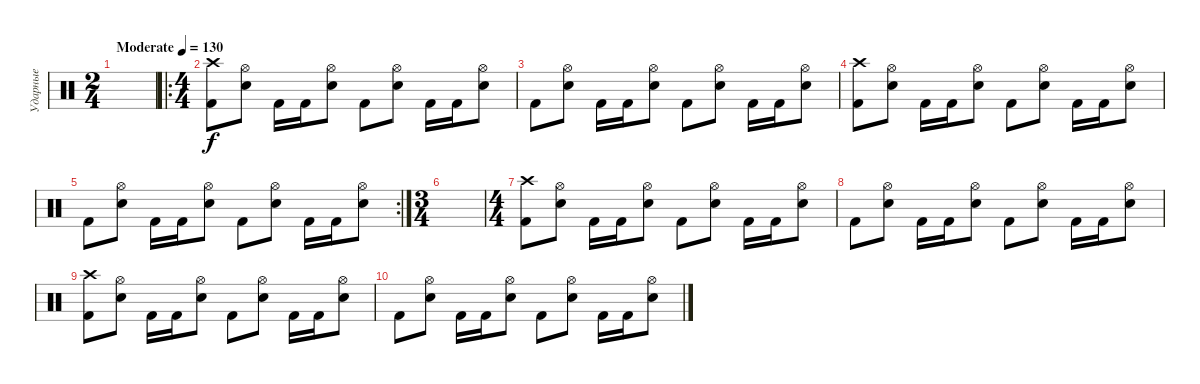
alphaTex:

\track ("Ударные" "Ударные") {instrument percussion}
\staff {score}
\articulation defaults
\ts (2 4)
\tempo (130 "Moderate")
\clef neutral
\ks c
|
\ro
\ts (4 4)
("Crash high (hit)" "Kick (hit) 2").8 ("Hi-Hat (open)" "Snare (hit) 2").8 "Kick (hit) 2".16 "Kick (hit) 2".16 ("Hi-Hat (open)" "Snare (hit) 2").8 "Kick (hit) 2".8 ("Hi-Hat (open)" "Snare (hit) 2").8 "Kick (hit) 2".16 "Kick (hit) 2".16 ("Hi-Hat (open)" "Snare (hit) 2").8 |
"Kick (hit) 2".8 ("Hi-Hat (open)" "Snare (hit) 2").8 "Kick (hit) 2".16 "Kick (hit) 2".16 ("Hi-Hat (open)" "Snare (hit) 2").8 "Kick (hit) 2".8 ("Hi-Hat (open)" "Snare (hit) 2").8 "Kick (hit) 2".16 "Kick (hit) 2".16 ("Hi-Hat (open)" "Snare (hit) 2").8 |
("Crash high (hit)" "Kick (hit) 2").8 ("Hi-Hat (open)" "Snare (hit) 2").8 "Kick (hit) 2".16 "Kick (hit) 2".16 ("Hi-Hat (open)" "Snare (hit) 2").8 "Kick (hit) 2".8 ("Hi-Hat (open)" "Snare (hit) 2").8 "Kick (hit) 2".16 "Kick (hit) 2".16 ("Hi-Hat (open)" "Snare (hit) 2").8 |
\rc 2 "Kick (hit) 2".8
("Hi-Hat (open)" "Snare (hit) 2").8 "Kick (hit) 2".16 "Kick (hit) 2".16 ("Hi-Hat (open)" "Snare (hit) 2").8 "Kick (hit) 2".8 ("Hi-Hat (open)" "Snare (hit) 2").8 "Kick (hit) 2".16 "Kick (hit) 2".16 ("Hi-Hat (open)" "Snare (hit) 2").8 |
\ts (3 4)
|
\ts (4 4)
("Crash high (hit)" "Kick (hit) 2").8 ("Hi-Hat (open)" "Snare (hit) 2").8 "Kick (hit) 2".16 "Kick (hit) 2".16 ("Hi-Hat (open)" "Snare (hit) 2").8 "Kick (hit) 2".8 ("Hi-Hat (open)" "Snare (hit) 2").8 "Kick (hit) 2".16 "Kick (hit) 2".16 ("Hi-Hat (open)" "Snare (hit) 2").8 |
"Kick (hit) 2".8 ("Hi-Hat (open)" "Snare (hit) 2").8 "Kick (hit) 2".16 "Kick (hit) 2".16 ("Hi-Hat (open)" "Snare (hit) 2").8 "Kick (hit) 2".8 ("Hi-Hat (open)" "Snare (hit) 2").8 "Kick (hit) 2".16 "Kick (hit) 2".16 ("Hi-Hat (open)" "Snare (hit) 2").8 |
("Crash high (hit)" "Kick (hit) 2").8 ("Hi-Hat (open)" "Snare (hit) 2").8 "Kick (hit) 2".16 "Kick (hit) 2".16 ("Hi-Hat (open)" "Snare (hit) 2").8 "Kick (hit) 2".8 ("Hi-Hat (open)" "Snare (hit) 2").8 "Kick (hit) 2".16 "Kick (hit) 2".16 ("Hi-Hat (open)" "Snare (hit) 2").8 |
"Kick (hit) 2".8 ("Hi-Hat (open)" "Snare (hit) 2").8 "Kick (hit) 2".16 "Kick (hit) 2".16 ("Hi-Hat (open)" "Snare (hit) 2").8 "Kick (hit) 2".8 ("Hi-Hat (open)" "Snare (hit) 2").8 "Kick (hit) 2".16 "Kick (hit) 2".16 ("Hi-Hat (open)" "Snare (hit) 2").8
